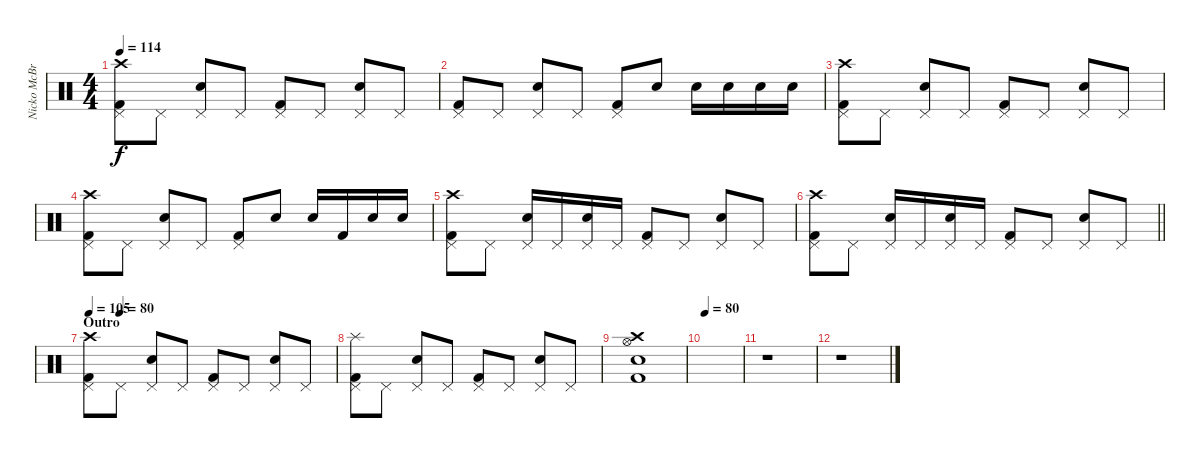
\track ("Nicko McBrain" "Nicko McBr") {instrument percussion}
\staff {score}
\articulation defaults
\ts (4 4)
\tempo 114
\clef neutral
\ks c
("Kick (hit) 2" "Pedal Hi-Hat (hit)" "Crash high (hit)").8{dy f} "Pedal Hi-Hat (hit)".8 ("Snare (hit) 2" "Pedal Hi-Hat (hit)").8 "Pedal Hi-Hat (hit)".8 ("Kick (hit) 2" "Pedal Hi-Hat (hit)").8 "Pedal Hi-Hat (hit)".8 ("Snare (hit) 2" "Pedal Hi-Hat (hit)").8 "Pedal Hi-Hat (hit)".8 |
("Kick (hit) 2" "Pedal Hi-Hat (hit)").8 "Pedal Hi-Hat (hit)".8 ("Snare (hit) 2" "Pedal Hi-Hat (hit)").8 "Pedal Hi-Hat (hit)".8 ("Kick (hit) 2" "Pedal Hi-Hat (hit)").8 "Snare (hit) 2".8 "Snare (hit) 2".16 "Snare (hit) 2".16 "Snare (hit) 2".16 "Snare (hit) 2".16 |
("Kick (hit) 2" "Pedal Hi-Hat (hit)" "Crash high (hit)").8 "Pedal Hi-Hat (hit)".8 ("Snare (hit) 2" "Pedal Hi-Hat (hit)").8 "Pedal Hi-Hat (hit)".8 ("Kick (hit) 2" "Pedal Hi-Hat (hit)").8 "Pedal Hi-Hat (hit)".8 ("Snare (hit) 2" "Pedal Hi-Hat (hit)").8 "Pedal Hi-Hat (hit)".8 |
("Kick (hit) 2" "Pedal Hi-Hat (hit)" "Crash high (hit)").8 "Pedal Hi-Hat (hit)".8 ("Snare (hit) 2" "Pedal Hi-Hat (hit)").8 "Pedal Hi-Hat (hit)".8 ("Kick (hit) 2" "Pedal Hi-Hat (hit)").8 "Snare (hit) 2".8 "Snare (hit) 2".16 "Kick (hit) 2".16 "Snare (hit) 2".16 "Snare (hit) 2".16 |
("Kick (hit) 2" "Pedal Hi-Hat (hit)" "Crash high (hit)").8 "Pedal Hi-Hat (hit)".8 ("Snare (hit) 2" "Pedal Hi-Hat (hit)").16 "Pedal Hi-Hat (hit)".16 ("Snare (hit) 2" "Pedal Hi-Hat (hit)").16 "Pedal Hi-Hat (hit)".16 ("Kick (hit) 2" "Pedal Hi-Hat (hit)").8 "Pedal Hi-Hat (hit)".8 ("Snare (hit) 2" "Pedal Hi-Hat (hit)").8 "Pedal Hi-Hat (hit)".8 |
\barLineRight lightlight
("Kick (hit) 2" "Pedal Hi-Hat (hit)" "Crash high (hit)").8 "Pedal Hi-Hat (hit)".8 ("Snare (hit) 2" "Pedal Hi-Hat (hit)").16 "Pedal Hi-Hat (hit)".16 ("Snare (hit) 2" "Pedal Hi-Hat (hit)").16 "Pedal Hi-Hat (hit)".16 ("Kick (hit) 2" "Pedal Hi-Hat (hit)").8 "Pedal Hi-Hat (hit)".8 ("Snare (hit) 2" "Pedal Hi-Hat (hit)").8 "Pedal Hi-Hat (hit)".8 |
\section ("" "Outro")
\tempo 105
\tempo (80 0.125)
("Kick (hit) 2" "Pedal Hi-Hat (hit)" "Crash high (hit)").8 "Pedal Hi-Hat (hit)".8 ("Snare (hit) 2" "Pedal Hi-Hat (hit)").8 "Pedal Hi-Hat (hit)".8 ("Kick (hit) 2" "Pedal Hi-Hat (hit)").8 "Pedal Hi-Hat (hit)".8 ("Snare (hit) 2" "Pedal Hi-Hat (hit)").8 "Pedal Hi-Hat (hit)".8 |
("Kick (hit) 2" "Pedal Hi-Hat (hit)" "Splash (hit)").8 "Pedal Hi-Hat (hit)".8 ("Snare (hit) 2" "Pedal Hi-Hat (hit)").8 "Pedal Hi-Hat (hit)".8 ("Kick (hit) 2" "Pedal Hi-Hat (hit)").8 "Pedal Hi-Hat (hit)".8 ("Snare (hit) 2" "Pedal Hi-Hat (hit)").8 "Pedal Hi-Hat (hit)".8 |
("Snare (hit) 2" "Kick (hit) 2" "Hi-Hat (open)" "Crash high (hit)").1 |
\tempo 80
|
r.1 |
r.1
